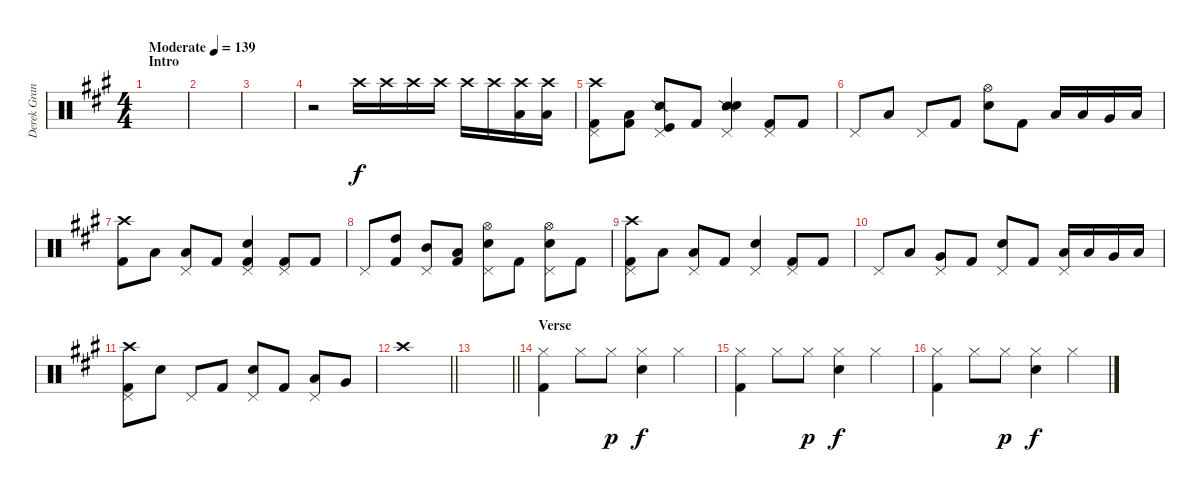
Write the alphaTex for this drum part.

\track ("Derek Grant - Drums" "Derek Gran") {instrument percussion}
\staff {score}
\articulation defaults
\ts (4 4)
\section ("" "Intro")
\tempo (139 "Moderate")
\clef neutral
\ks a
|
|
|
r.2 "Crash high (hit)".16{volume 11} "Crash high (hit)".16 "Crash high (hit)".16 "Crash high (hit)".16 "Crash high (hit)".16 "Crash high (hit)".16 ("Low Tom (hit)" "Crash high (hit)").16 ("Low Floor Tom (hit)" "Crash high (hit)").16 |
("Kick (hit) 2" "Crash high (hit)" "Pedal Hi-Hat (hit)").8 ("Kick (hit) 2" "Low Tom (hit)").8 ("Snare (side stick) 2" "Kick (hit)" "Pedal Hi-Hat (hit)").8 "Kick (hit) 2".8 ("Snare (side stick) 2" "Snare (hit) 2" "Pedal Hi-Hat (hit)").4 ("Pedal Hi-Hat (hit)" "Kick (hit) 2").8 "Kick (hit) 2".8 |
"Pedal Hi-Hat (hit)".8 "Low Tom (hit)".8 "Pedal Hi-Hat (hit)".8 "Kick (hit) 2".8 ("Snare (hit) 2" "Hi-Hat (open)").8 "Kick (hit) 2".8 "Low Tom (hit)".16 "Low Tom (hit)".16 "Very Low Tom (hit)".16 "Low Floor Tom (hit)".16 |
("Kick (hit) 2" "Crash high (hit)").8 "Low Tom (hit)".8 ("Pedal Hi-Hat (hit)" "Low Tom (hit)").8 "Kick (hit) 2".8 ("Snare (hit) 2" "Kick (hit) 2" "Pedal Hi-Hat (hit)").4 ("Pedal Hi-Hat (hit)" "Kick (hit) 2").8 "Kick (hit) 2".8 |
"Pedal Hi-Hat (hit)".8 ("Kick (hit) 2" "High Tom (hit)").8 ("Pedal Hi-Hat (hit)" "Mid Tom (hit)").8 ("Low Tom (hit)" "Kick (hit) 2").8 ("Hi-Hat (open)" "Snare (hit) 2" "Pedal Hi-Hat (hit)").8 "Kick (hit) 2".8 ("Hi-Hat (open)" "Snare (hit) 2" "Pedal Hi-Hat (hit)").8 "Kick (hit) 2".8 |
("Kick (hit) 2" "Crash high (hit)" "Pedal Hi-Hat (hit)").8 "Low Tom (hit)".8 ("Pedal Hi-Hat (hit)" "Low Tom (hit)").8 "Kick (hit) 2".8 ("Snare (hit) 2" "Pedal Hi-Hat (hit)").4 ("Kick (hit) 2" "Pedal Hi-Hat (hit)").8 "Kick (hit) 2".8 |
"Pedal Hi-Hat (hit)".8 "Low Tom (hit)".8 ("Very Low Tom (hit)" "Pedal Hi-Hat (hit)").8 "Kick (hit) 2".8 ("Snare (hit) 2" "Pedal Hi-Hat (hit)").8 "Kick (hit) 2".8 ("Low Tom (hit)" "Pedal Hi-Hat (hit)").16 "Low Tom (hit)".16 "Very Low Tom (hit)".16 "Low Floor Tom (hit)".16 |
("Crash high (hit)" "Kick (hit) 2" "Pedal Hi-Hat (hit)").8 "Snare (hit) 2".8 "Pedal Hi-Hat (hit)".8 "Kick (hit) 2".8 ("Snare (hit) 2" "Pedal Hi-Hat (hit)").8 "Kick (hit) 2".8 ("Low Tom (hit)" "Pedal Hi-Hat (hit)").8 "Very Low Tom (hit)".8 |
\barLineRight lightlight "Crash high (hit)".1
|
\barLineRight lightlight
|
\section ("" "Verse")
("Kick (hit) 2" "Hi-Hat (closed)").4{dy f} "Hi-Hat (closed)".8 "Hi-Hat (closed)".8{dy p} ("Hi-Hat (closed)" "Snare (hit) 2").4{dy f} "Hi-Hat (closed)".4 |
("Kick (hit) 2" "Hi-Hat (closed)").4 "Hi-Hat (closed)".8 "Hi-Hat (closed)".8{dy p} ("Hi-Hat (closed)" "Snare (hit) 2").4{dy f} "Hi-Hat (closed)".4 |
("Kick (hit) 2" "Hi-Hat (closed)").4 "Hi-Hat (closed)".8 "Hi-Hat (closed)".8{dy p} ("Hi-Hat (closed)" "Snare (hit) 2").4{dy f} "Hi-Hat (closed)".4
